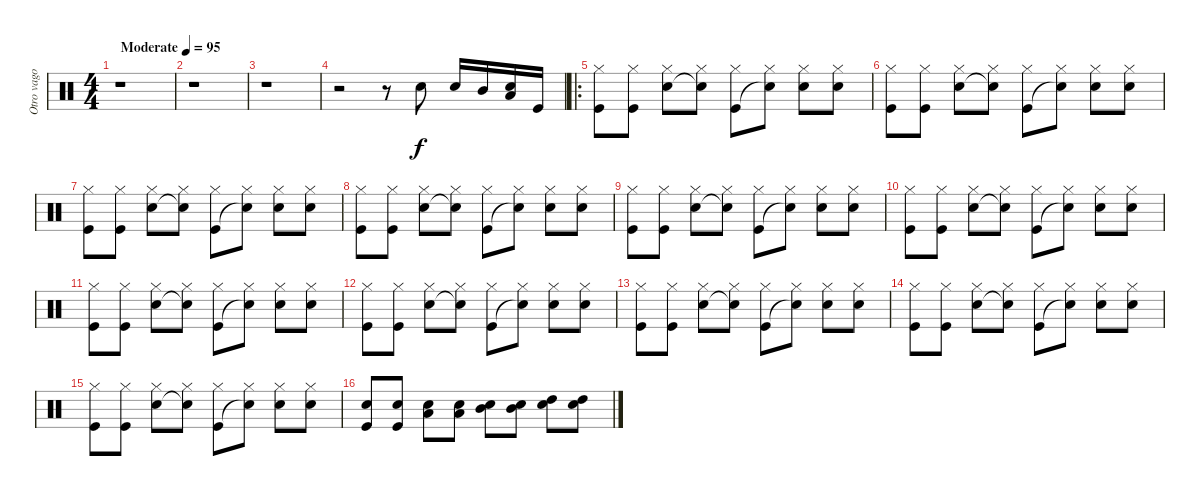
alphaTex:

\track ("Otro vago" "Otro vago") {instrument percussion}
\staff {score}
\articulation defaults
\ts (4 4)
\tempo (95 "Moderate")
\clef neutral
\ks c
r.1{dy f} |
r.1 |
r.1 |
r.2 r.8 "Snare (hit) 2".8 "Snare (hit) 2".16 "Mid Tom (hit)".16 ("Snare (hit) 2" "Low Tom (hit)").16 "Kick (hit)".16 |
\ro
("Hi-Hat (closed)" "Kick (hit)").8 ("Hi-Hat (closed)" "Kick (hit)").8 ("Hi-Hat (closed)" "Snare (hit) 2").8 ("Hi-Hat (closed)" "Snare (hit)"{t}).8 ("Hi-Hat (closed)" "Kick (hit)").8 ("Hi-Hat (closed)" "Snare (hit)"{t}).8 ("Hi-Hat (closed)" "Snare (hit) 2").8 ("Hi-Hat (closed)" "Snare (hit) 2").8 |
("Hi-Hat (closed)" "Kick (hit)").8 ("Hi-Hat (closed)" "Kick (hit)").8 ("Hi-Hat (closed)" "Snare (hit) 2").8 ("Hi-Hat (closed)" "Snare (hit)"{t}).8 ("Hi-Hat (closed)" "Kick (hit)").8 ("Hi-Hat (closed)" "Snare (hit)"{t}).8 ("Hi-Hat (closed)" "Snare (hit) 2").8 ("Hi-Hat (closed)" "Snare (hit) 2").8 |
("Hi-Hat (closed)" "Kick (hit)").8 ("Hi-Hat (closed)" "Kick (hit)").8 ("Hi-Hat (closed)" "Snare (hit) 2").8 ("Hi-Hat (closed)" "Snare (hit)"{t}).8 ("Hi-Hat (closed)" "Kick (hit)").8 ("Hi-Hat (closed)" "Snare (hit)"{t}).8 ("Hi-Hat (closed)" "Snare (hit) 2").8 ("Hi-Hat (closed)" "Snare (hit) 2").8 |
("Hi-Hat (closed)" "Kick (hit)").8 ("Hi-Hat (closed)" "Kick (hit)").8 ("Hi-Hat (closed)" "Snare (hit) 2").8 ("Hi-Hat (closed)" "Snare (hit)"{t}).8 ("Hi-Hat (closed)" "Kick (hit)").8 ("Hi-Hat (closed)" "Snare (hit)"{t}).8 ("Hi-Hat (closed)" "Snare (hit) 2").8 ("Hi-Hat (closed)" "Snare (hit) 2").8 |
("Hi-Hat (closed)" "Kick (hit)").8 ("Hi-Hat (closed)" "Kick (hit)").8 ("Hi-Hat (closed)" "Snare (hit) 2").8 ("Hi-Hat (closed)" "Snare (hit)"{t}).8 ("Hi-Hat (closed)" "Kick (hit)").8 ("Hi-Hat (closed)" "Snare (hit)"{t}).8 ("Hi-Hat (closed)" "Snare (hit) 2").8 ("Hi-Hat (closed)" "Snare (hit) 2").8 |
("Hi-Hat (closed)" "Kick (hit)").8 ("Hi-Hat (closed)" "Kick (hit)").8 ("Hi-Hat (closed)" "Snare (hit) 2").8 ("Hi-Hat (closed)" "Snare (hit)"{t}).8 ("Hi-Hat (closed)" "Kick (hit)").8 ("Hi-Hat (closed)" "Snare (hit)"{t}).8 ("Hi-Hat (closed)" "Snare (hit) 2").8 ("Hi-Hat (closed)" "Snare (hit) 2").8 |
("Hi-Hat (closed)" "Kick (hit)").8 ("Hi-Hat (closed)" "Kick (hit)").8 ("Hi-Hat (closed)" "Snare (hit) 2").8 ("Hi-Hat (closed)" "Snare (hit)"{t}).8 ("Hi-Hat (closed)" "Kick (hit)").8 ("Hi-Hat (closed)" "Snare (hit)"{t}).8 ("Hi-Hat (closed)" "Snare (hit) 2").8 ("Hi-Hat (closed)" "Snare (hit) 2").8 |
("Hi-Hat (closed)" "Kick (hit)").8 ("Hi-Hat (closed)" "Kick (hit)").8 ("Hi-Hat (closed)" "Snare (hit) 2").8 ("Hi-Hat (closed)" "Snare (hit)"{t}).8 ("Hi-Hat (closed)" "Kick (hit)").8 ("Hi-Hat (closed)" "Snare (hit)"{t}).8 ("Hi-Hat (closed)" "Snare (hit) 2").8 ("Hi-Hat (closed)" "Snare (hit) 2").8 |
("Hi-Hat (closed)" "Kick (hit)").8 ("Hi-Hat (closed)" "Kick (hit)").8 ("Hi-Hat (closed)" "Snare (hit) 2").8 ("Hi-Hat (closed)" "Snare (hit)"{t}).8 ("Hi-Hat (closed)" "Kick (hit)").8 ("Hi-Hat (closed)" "Snare (hit)"{t}).8 ("Hi-Hat (closed)" "Snare (hit) 2").8 ("Hi-Hat (closed)" "Snare (hit) 2").8 |
("Hi-Hat (closed)" "Kick (hit)").8 ("Hi-Hat (closed)" "Kick (hit)").8 ("Hi-Hat (closed)" "Snare (hit) 2").8 ("Hi-Hat (closed)" "Snare (hit)"{t}).8 ("Hi-Hat (closed)" "Kick (hit)").8 ("Hi-Hat (closed)" "Snare (hit)"{t}).8 ("Hi-Hat (closed)" "Snare (hit) 2").8 ("Hi-Hat (closed)" "Snare (hit) 2").8 |
("Hi-Hat (closed)" "Kick (hit)").8 ("Hi-Hat (closed)" "Kick (hit)").8 ("Hi-Hat (closed)" "Snare (hit) 2").8 ("Hi-Hat (closed)" "Snare (hit)"{t}).8 ("Hi-Hat (closed)" "Kick (hit)").8 ("Hi-Hat (closed)" "Snare (hit)"{t}).8 ("Hi-Hat (closed)" "Snare (hit) 2").8 ("Hi-Hat (closed)" "Snare (hit) 2").8 |
("Snare (hit) 2" "Kick (hit)").8 ("Snare (hit) 2" "Kick (hit)").8 ("Snare (hit) 2" "Low Tom (hit)").8 ("Snare (hit) 2" "Low Tom (hit)").8 ("Snare (hit) 2" "Mid Tom (hit)").8 ("Snare (hit) 2" "Mid Tom (hit)").8 ("Snare (hit) 2" "High Tom (hit)").8 ("Snare (hit) 2" "High Tom (hit)").8
